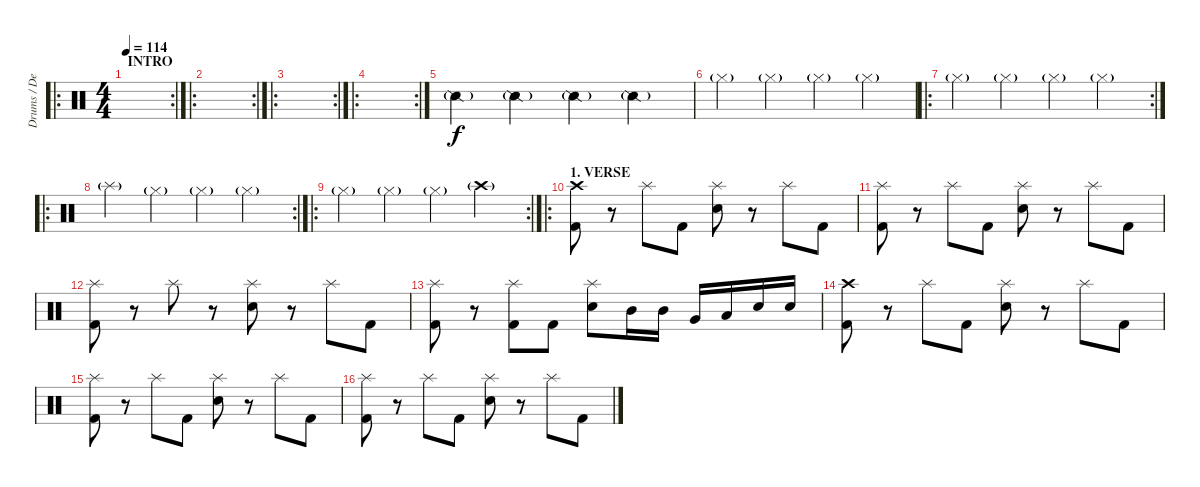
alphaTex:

\track ("Drums / Dennis" "Drums / De") {instrument percussion}
\staff {score}
\articulation defaults
\ro
\rc 2
\ts (4 4)
\section ("" "INTRO")
\tempo 114
\clef neutral
\ks c
|
\ro
\rc 2
|
\ro
\rc 2
|
\ro
\rc 2
|
"Snare (side stick) 2"{g}.4 "Snare (side stick) 2"{g}.4 "Snare (side stick) 2"{g}.4 "Snare (side stick) 2"{g}.4 |
"Hi-Hat (closed)"{g}.4 "Hi-Hat (closed)"{g}.4 "Hi-Hat (closed)"{g}.4 "Hi-Hat (closed)"{g}.4 |
\ro
\rc 2 "Hi-Hat (closed)"{g}.4 "Hi-Hat (closed)"{g}.4 "Hi-Hat (closed)"{g}.4 "Hi-Hat (closed)"{g}.4
|
\ro
\rc 2 "Splash (hit)"{g}.4 "Hi-Hat (closed)"{g}.4 "Hi-Hat (closed)"{g}.4 "Hi-Hat (closed)"{g}.4
|
\ro
\rc 2 "Hi-Hat (closed)"{g}.4 "Hi-Hat (closed)"{g}.4 "Hi-Hat (closed)"{g}.4 "Crash high (hit)"{g}.4
|
\ro
\section ("" "1. VERSE")
("Kick (hit) 2" "Crash high (hit)").8{dy f} r.8 "Splash (hit)".8 "Kick (hit) 2".8 ("Electric Snare (hit)" "Splash (hit)").8 r.8 "Splash (hit)".8 "Kick (hit) 2".8 |
("Kick (hit) 2" "Splash (hit)").8 r.8 "Splash (hit)".8 "Kick (hit) 2".8 ("Electric Snare (hit)" "Splash (hit)").8 r.8 "Splash (hit)".8 "Kick (hit) 2".8 |
("Kick (hit) 2" "Splash (hit)").8 r.8 "Splash (hit)".8 r.8 ("Electric Snare (hit)" "Splash (hit)").8 r.8 "Splash (hit)".8 "Kick (hit) 2".8 |
("Kick (hit) 2" "Splash (hit)").8 r.8 ("Kick (hit) 2" "Splash (hit)").8 "Kick (hit) 2".8 ("Electric Snare (hit)" "Splash (hit)").8 "Mid Tom (hit)".16 "Mid Tom (hit)".16 "Very Low Tom (hit)".16 "Low Floor Tom (hit)".16 "Electric Snare (hit)".16 "Electric Snare (hit)".16 |
("Kick (hit) 2" "Crash high (hit)").8 r.8 "Splash (hit)".8 "Kick (hit) 2".8 ("Electric Snare (hit)" "Splash (hit)").8 r.8 "Splash (hit)".8 "Kick (hit) 2".8 |
("Kick (hit) 2" "Splash (hit)").8 r.8 "Splash (hit)".8 "Kick (hit) 2".8 ("Electric Snare (hit)" "Splash (hit)").8 r.8 "Splash (hit)".8 "Kick (hit) 2".8 |
("Kick (hit) 2" "Splash (hit)").8 r.8 "Splash (hit)".8 "Kick (hit) 2".8 ("Electric Snare (hit)" "Splash (hit)").8 r.8 "Splash (hit)".8 "Kick (hit) 2".8
